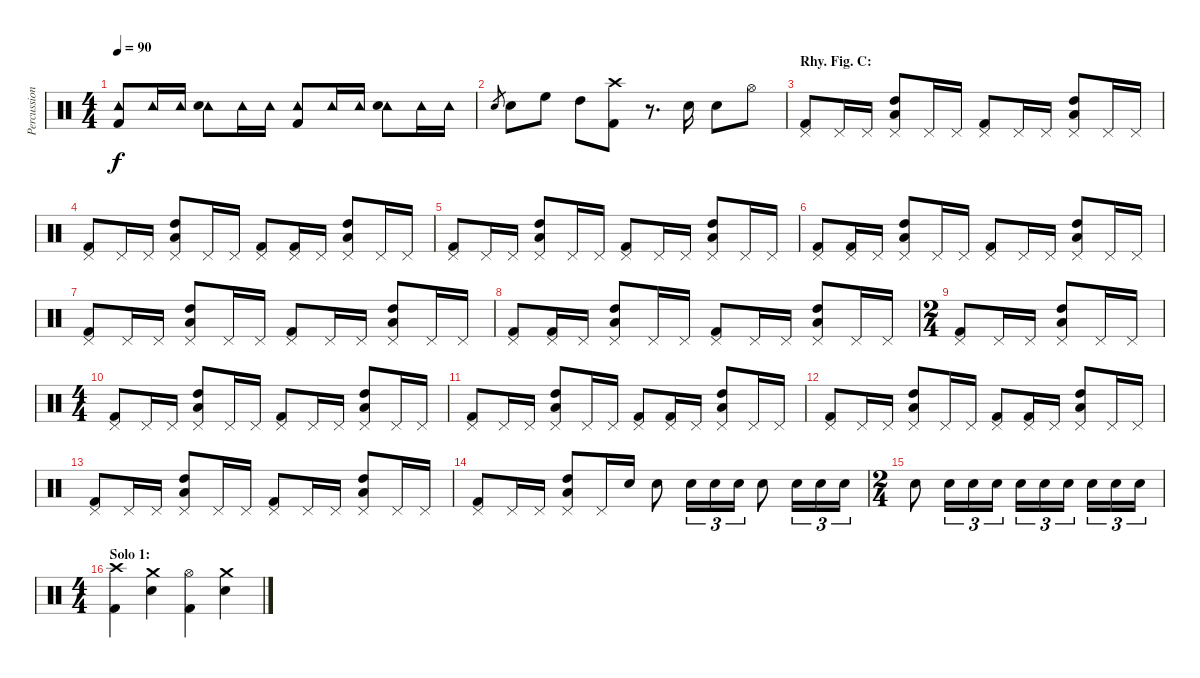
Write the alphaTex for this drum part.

\track ("Percussion" "Percussion") {instrument percussion}
\staff {score}
\articulation defaults
\ts (4 4)
\tempo 90
\clef neutral
\ks c
("Tambourine (hit)" "Kick (hit) 2").8{dy f} "Tambourine (hit)".16 "Tambourine (hit)".16 ("Tambourine (hit)" "Electric Snare (hit)").8 "Tambourine (hit)".16 "Tambourine (hit)".16 ("Tambourine (hit)" "Kick (hit) 2").8 "Tambourine (hit)".16 "Tambourine (hit)".16 ("Tambourine (hit)" "Electric Snare (hit)").8 "Tambourine (hit)".16 "Tambourine (hit)".16 |
"Electric Snare (hit)".8{gr} "Electric Snare (hit)".8 "High Floor Tom (hit)".8 "High Tom (hit)".8 ("Crash high (hit)" "Kick (hit) 2").8 r.8{d} "Electric Snare (hit)".16 "Electric Snare (hit)".8 "Hi-Hat (open)".8 |
\section ("" "Rhy. Fig. C:")
("Pedal Hi-Hat (hit)" "Kick (hit) 2").8 "Pedal Hi-Hat (hit)".16 "Pedal Hi-Hat (hit)".16 ("Pedal Hi-Hat (hit)" "Low Tom (hit)" "High Tom (hit)").8 "Pedal Hi-Hat (hit)".16 "Pedal Hi-Hat (hit)".16 ("Pedal Hi-Hat (hit)" "Kick (hit) 2").8 "Pedal Hi-Hat (hit)".16 "Pedal Hi-Hat (hit)".16 ("Pedal Hi-Hat (hit)" "Low Tom (hit)" "High Tom (hit)").8 "Pedal Hi-Hat (hit)".16 "Pedal Hi-Hat (hit)".16 |
("Pedal Hi-Hat (hit)" "Kick (hit) 2").8 "Pedal Hi-Hat (hit)".16 "Pedal Hi-Hat (hit)".16 ("Pedal Hi-Hat (hit)" "Low Tom (hit)" "High Tom (hit)").8 "Pedal Hi-Hat (hit)".16 "Pedal Hi-Hat (hit)".16 ("Pedal Hi-Hat (hit)" "Kick (hit) 2").8 ("Pedal Hi-Hat (hit)" "Kick (hit) 2").16 "Pedal Hi-Hat (hit)".16 ("Pedal Hi-Hat (hit)" "Low Tom (hit)" "High Tom (hit)").8 "Pedal Hi-Hat (hit)".16 "Pedal Hi-Hat (hit)".16 |
("Pedal Hi-Hat (hit)" "Kick (hit) 2").8 "Pedal Hi-Hat (hit)".16 "Pedal Hi-Hat (hit)".16 ("Pedal Hi-Hat (hit)" "Low Tom (hit)" "High Tom (hit)").8 "Pedal Hi-Hat (hit)".16 "Pedal Hi-Hat (hit)".16 ("Pedal Hi-Hat (hit)" "Kick (hit) 2").8 "Pedal Hi-Hat (hit)".16 "Pedal Hi-Hat (hit)".16 ("Pedal Hi-Hat (hit)" "Low Tom (hit)" "High Tom (hit)").8 "Pedal Hi-Hat (hit)".16 "Pedal Hi-Hat (hit)".16 |
("Pedal Hi-Hat (hit)" "Kick (hit) 2").8 ("Pedal Hi-Hat (hit)" "Kick (hit) 2").16 "Pedal Hi-Hat (hit)".16 ("Pedal Hi-Hat (hit)" "Low Tom (hit)" "High Tom (hit)").8 "Pedal Hi-Hat (hit)".16 "Pedal Hi-Hat (hit)".16 ("Pedal Hi-Hat (hit)" "Kick (hit) 2").8 "Pedal Hi-Hat (hit)".16 "Pedal Hi-Hat (hit)".16 ("Pedal Hi-Hat (hit)" "Low Tom (hit)" "High Tom (hit)").8 "Pedal Hi-Hat (hit)".16 "Pedal Hi-Hat (hit)".16 |
("Pedal Hi-Hat (hit)" "Kick (hit) 2").8 "Pedal Hi-Hat (hit)".16 "Pedal Hi-Hat (hit)".16 ("Pedal Hi-Hat (hit)" "Low Tom (hit)" "High Tom (hit)").8 "Pedal Hi-Hat (hit)".16 "Pedal Hi-Hat (hit)".16 ("Pedal Hi-Hat (hit)" "Kick (hit) 2").8 "Pedal Hi-Hat (hit)".16 "Pedal Hi-Hat (hit)".16 ("Pedal Hi-Hat (hit)" "Low Tom (hit)" "High Tom (hit)").8 "Pedal Hi-Hat (hit)".16 "Pedal Hi-Hat (hit)".16 |
("Pedal Hi-Hat (hit)" "Kick (hit) 2").8 ("Pedal Hi-Hat (hit)" "Kick (hit) 2").16 "Pedal Hi-Hat (hit)".16 ("Pedal Hi-Hat (hit)" "Low Tom (hit)" "High Tom (hit)").8 "Pedal Hi-Hat (hit)".16 "Pedal Hi-Hat (hit)".16 ("Pedal Hi-Hat (hit)" "Kick (hit) 2").8 "Pedal Hi-Hat (hit)".16 "Pedal Hi-Hat (hit)".16 ("Pedal Hi-Hat (hit)" "Low Tom (hit)" "High Tom (hit)").8 "Pedal Hi-Hat (hit)".16 "Pedal Hi-Hat (hit)".16 |
\ts (2 4)
("Pedal Hi-Hat (hit)" "Kick (hit) 2").8 "Pedal Hi-Hat (hit)".16 "Pedal Hi-Hat (hit)".16 ("Pedal Hi-Hat (hit)" "Low Tom (hit)" "High Tom (hit)").8 "Pedal Hi-Hat (hit)".16 "Pedal Hi-Hat (hit)".16 |
\ts (4 4)
("Pedal Hi-Hat (hit)" "Kick (hit) 2").8 "Pedal Hi-Hat (hit)".16 "Pedal Hi-Hat (hit)".16 ("Pedal Hi-Hat (hit)" "Low Tom (hit)" "High Tom (hit)").8 "Pedal Hi-Hat (hit)".16 "Pedal Hi-Hat (hit)".16 ("Pedal Hi-Hat (hit)" "Kick (hit) 2").8 "Pedal Hi-Hat (hit)".16 "Pedal Hi-Hat (hit)".16 ("Pedal Hi-Hat (hit)" "Low Tom (hit)" "High Tom (hit)").8 "Pedal Hi-Hat (hit)".16 "Pedal Hi-Hat (hit)".16 |
("Pedal Hi-Hat (hit)" "Kick (hit) 2").8 "Pedal Hi-Hat (hit)".16 "Pedal Hi-Hat (hit)".16 ("Pedal Hi-Hat (hit)" "Low Tom (hit)" "High Tom (hit)").8 "Pedal Hi-Hat (hit)".16 "Pedal Hi-Hat (hit)".16 ("Pedal Hi-Hat (hit)" "Kick (hit) 2").8 ("Pedal Hi-Hat (hit)" "Kick (hit) 2").16 "Pedal Hi-Hat (hit)".16 ("Pedal Hi-Hat (hit)" "Low Tom (hit)" "High Tom (hit)").8 "Pedal Hi-Hat (hit)".16 "Pedal Hi-Hat (hit)".16 |
("Pedal Hi-Hat (hit)" "Kick (hit) 2").8 "Pedal Hi-Hat (hit)".16 "Pedal Hi-Hat (hit)".16 ("Pedal Hi-Hat (hit)" "Low Tom (hit)" "High Tom (hit)").8 "Pedal Hi-Hat (hit)".16 "Pedal Hi-Hat (hit)".16 ("Pedal Hi-Hat (hit)" "Kick (hit) 2").8 ("Pedal Hi-Hat (hit)" "Kick (hit) 2").16 "Pedal Hi-Hat (hit)".16 ("Pedal Hi-Hat (hit)" "Low Tom (hit)" "High Tom (hit)").8 "Pedal Hi-Hat (hit)".16 "Pedal Hi-Hat (hit)".16 |
("Pedal Hi-Hat (hit)" "Kick (hit) 2").8 "Pedal Hi-Hat (hit)".16 "Pedal Hi-Hat (hit)".16 ("Pedal Hi-Hat (hit)" "Low Tom (hit)" "High Tom (hit)").8 "Pedal Hi-Hat (hit)".16 "Pedal Hi-Hat (hit)".16 ("Pedal Hi-Hat (hit)" "Kick (hit) 2").8 "Pedal Hi-Hat (hit)".16 "Pedal Hi-Hat (hit)".16 ("Pedal Hi-Hat (hit)" "Low Tom (hit)" "High Tom (hit)").8 "Pedal Hi-Hat (hit)".16 "Pedal Hi-Hat (hit)".16 |
("Pedal Hi-Hat (hit)" "Kick (hit) 2").8 "Pedal Hi-Hat (hit)".16 "Pedal Hi-Hat (hit)".16 ("Pedal Hi-Hat (hit)" "Low Tom (hit)" "High Tom (hit)").8 "Pedal Hi-Hat (hit)".16 "Electric Snare (hit)".16 "Electric Snare (hit)".8 "Electric Snare (hit)".16{tu (3 2)} "Electric Snare (hit)".16{tu (3 2)} "Electric Snare (hit)".16{tu (3 2)} "Electric Snare (hit)".8 "Electric Snare (hit)".16{tu (3 2)} "Electric Snare (hit)".16{tu (3 2)} "Electric Snare (hit)".16{tu (3 2)} |
\ts (2 4)
"Electric Snare (hit)".8 "Electric Snare (hit)".16{tu (3 2)} "Electric Snare (hit)".16{tu (3 2)} "Electric Snare (hit)".16{tu (3 2)} "Electric Snare (hit)".16{tu (3 2)} "Electric Snare (hit)".16{tu (3 2)} "Electric Snare (hit)".16{tu (3 2)} "Electric Snare (hit)".16{tu (3 2)} "Electric Snare (hit)".16{tu (3 2)} "Electric Snare (hit)".16{tu (3 2)} |
\ts (4 4)
\section ("" "Solo 1:")
("Crash high (hit)" "Kick (hit) 2").4 ("Crash medium (hit)" "Electric Snare (hit)").4 ("Hi-Hat (open)" "Kick (hit) 2").4 ("Crash medium (hit)" "Electric Snare (hit)").4
